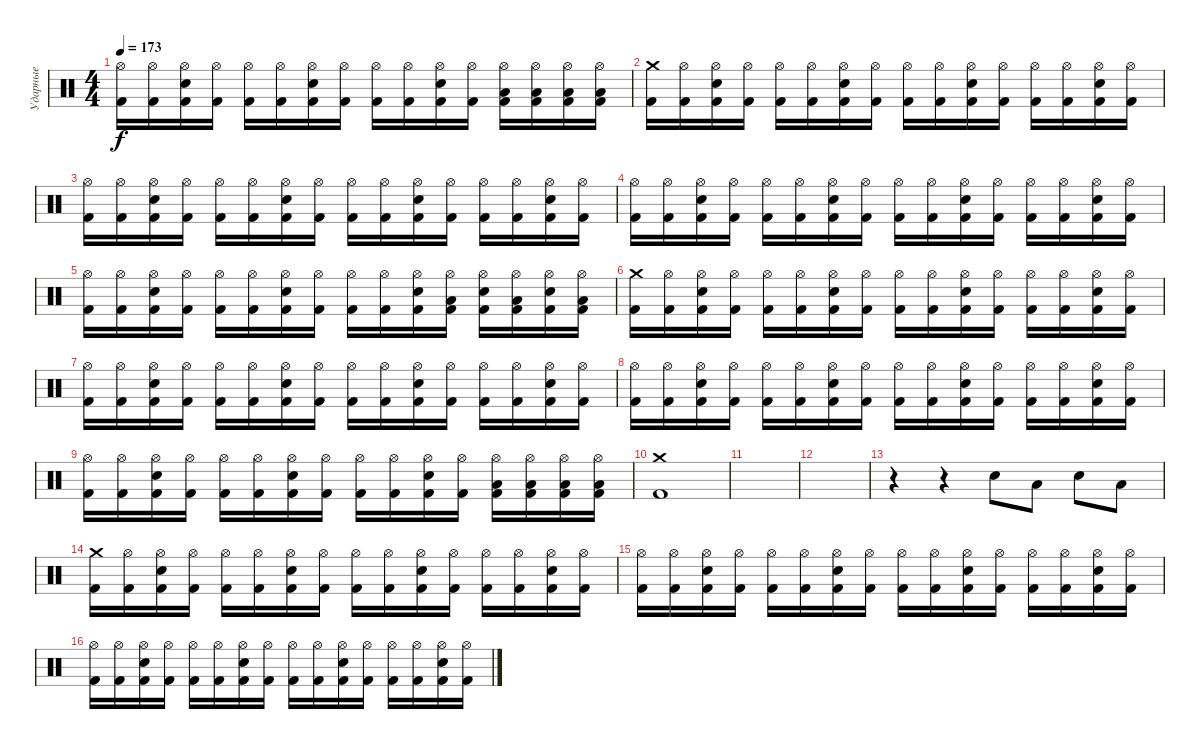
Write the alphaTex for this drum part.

\track ("Ударные" "Ударные") {instrument percussion}
\staff {score}
\articulation defaults
\ts (4 4)
\tempo 173
\clef neutral
\ks c
("Hi-Hat (open)" "Kick (hit) 2").16{dy f} ("Hi-Hat (open)" "Kick (hit) 2").16 ("Hi-Hat (open)" "Electric Snare (hit)" "Kick (hit) 2").16 ("Hi-Hat (open)" "Kick (hit) 2").16 ("Hi-Hat (open)" "Kick (hit) 2").16 ("Hi-Hat (open)" "Kick (hit) 2").16 ("Hi-Hat (open)" "Electric Snare (hit)" "Kick (hit) 2").16 ("Hi-Hat (open)" "Kick (hit) 2").16 ("Hi-Hat (open)" "Kick (hit) 2").16 ("Hi-Hat (open)" "Kick (hit) 2").16 ("Hi-Hat (open)" "Electric Snare (hit)" "Kick (hit) 2").16 ("Hi-Hat (open)" "Kick (hit) 2").16 ("Hi-Hat (open)" "Low Tom (hit)" "Kick (hit) 2").16 ("Hi-Hat (open)" "Low Tom (hit)" "Kick (hit) 2").16 ("Hi-Hat (open)" "Low Tom (hit)" "Kick (hit) 2").16 ("Hi-Hat (open)" "Low Tom (hit)" "Kick (hit) 2").16 |
("Crash medium (hit)" "Kick (hit) 2").16 ("Hi-Hat (open)" "Kick (hit) 2").16 ("Hi-Hat (open)" "Electric Snare (hit)" "Kick (hit) 2").16 ("Hi-Hat (open)" "Kick (hit) 2").16 ("Hi-Hat (open)" "Kick (hit) 2").16 ("Hi-Hat (open)" "Kick (hit) 2").16 ("Hi-Hat (open)" "Electric Snare (hit)" "Kick (hit) 2").16 ("Hi-Hat (open)" "Kick (hit) 2").16 ("Hi-Hat (open)" "Kick (hit) 2").16 ("Hi-Hat (open)" "Kick (hit) 2").16 ("Hi-Hat (open)" "Electric Snare (hit)" "Kick (hit) 2").16 ("Hi-Hat (open)" "Kick (hit) 2").16 ("Hi-Hat (open)" "Kick (hit) 2").16 ("Hi-Hat (open)" "Kick (hit) 2").16 ("Hi-Hat (open)" "Electric Snare (hit)" "Kick (hit) 2").16 ("Hi-Hat (open)" "Kick (hit) 2").16 |
("Hi-Hat (open)" "Kick (hit) 2").16 ("Hi-Hat (open)" "Kick (hit) 2").16 ("Hi-Hat (open)" "Electric Snare (hit)" "Kick (hit) 2").16 ("Hi-Hat (open)" "Kick (hit) 2").16 ("Hi-Hat (open)" "Kick (hit) 2").16 ("Hi-Hat (open)" "Kick (hit) 2").16 ("Hi-Hat (open)" "Electric Snare (hit)" "Kick (hit) 2").16 ("Hi-Hat (open)" "Kick (hit) 2").16 ("Hi-Hat (open)" "Kick (hit) 2").16 ("Hi-Hat (open)" "Kick (hit) 2").16 ("Hi-Hat (open)" "Electric Snare (hit)" "Kick (hit) 2").16 ("Hi-Hat (open)" "Kick (hit) 2").16 ("Hi-Hat (open)" "Kick (hit) 2").16 ("Hi-Hat (open)" "Kick (hit) 2").16 ("Hi-Hat (open)" "Electric Snare (hit)" "Kick (hit) 2").16 ("Hi-Hat (open)" "Kick (hit) 2").16 |
("Hi-Hat (open)" "Kick (hit) 2").16 ("Hi-Hat (open)" "Kick (hit) 2").16 ("Hi-Hat (open)" "Electric Snare (hit)" "Kick (hit) 2").16 ("Hi-Hat (open)" "Kick (hit) 2").16 ("Hi-Hat (open)" "Kick (hit) 2").16 ("Hi-Hat (open)" "Kick (hit) 2").16 ("Hi-Hat (open)" "Electric Snare (hit)" "Kick (hit) 2").16 ("Hi-Hat (open)" "Kick (hit) 2").16 ("Hi-Hat (open)" "Kick (hit) 2").16 ("Hi-Hat (open)" "Kick (hit) 2").16 ("Hi-Hat (open)" "Electric Snare (hit)" "Kick (hit) 2").16 ("Hi-Hat (open)" "Kick (hit) 2").16 ("Hi-Hat (open)" "Kick (hit) 2").16 ("Hi-Hat (open)" "Kick (hit) 2").16 ("Hi-Hat (open)" "Electric Snare (hit)" "Kick (hit) 2").16 ("Hi-Hat (open)" "Kick (hit) 2").16 |
("Hi-Hat (open)" "Kick (hit) 2").16 ("Hi-Hat (open)" "Kick (hit) 2").16 ("Hi-Hat (open)" "Electric Snare (hit)" "Kick (hit) 2").16 ("Hi-Hat (open)" "Kick (hit) 2").16 ("Hi-Hat (open)" "Kick (hit) 2").16 ("Hi-Hat (open)" "Kick (hit) 2").16 ("Hi-Hat (open)" "Electric Snare (hit)" "Kick (hit) 2").16 ("Hi-Hat (open)" "Kick (hit) 2").16 ("Hi-Hat (open)" "Kick (hit) 2").16 ("Hi-Hat (open)" "Kick (hit) 2").16 ("Hi-Hat (open)" "Electric Snare (hit)" "Kick (hit) 2").16 ("Hi-Hat (open)" "Low Tom (hit)" "Kick (hit) 2").16 ("Hi-Hat (open)" "Electric Snare (hit)" "Kick (hit) 2").16 ("Hi-Hat (open)" "Low Tom (hit)" "Kick (hit) 2").16 ("Hi-Hat (open)" "Electric Snare (hit)" "Kick (hit) 2").16 ("Hi-Hat (open)" "Low Tom (hit)" "Kick (hit) 2").16 |
("Crash medium (hit)" "Kick (hit) 2").16 ("Hi-Hat (open)" "Kick (hit) 2").16 ("Hi-Hat (open)" "Electric Snare (hit)" "Kick (hit) 2").16 ("Hi-Hat (open)" "Kick (hit) 2").16 ("Hi-Hat (open)" "Kick (hit) 2").16 ("Hi-Hat (open)" "Kick (hit) 2").16 ("Hi-Hat (open)" "Electric Snare (hit)" "Kick (hit) 2").16 ("Hi-Hat (open)" "Kick (hit) 2").16 ("Hi-Hat (open)" "Kick (hit) 2").16 ("Hi-Hat (open)" "Kick (hit) 2").16 ("Hi-Hat (open)" "Electric Snare (hit)" "Kick (hit) 2").16 ("Hi-Hat (open)" "Kick (hit) 2").16 ("Hi-Hat (open)" "Kick (hit) 2").16 ("Hi-Hat (open)" "Kick (hit) 2").16 ("Hi-Hat (open)" "Electric Snare (hit)" "Kick (hit) 2").16 ("Hi-Hat (open)" "Kick (hit) 2").16 |
("Hi-Hat (open)" "Kick (hit) 2").16 ("Hi-Hat (open)" "Kick (hit) 2").16 ("Hi-Hat (open)" "Electric Snare (hit)" "Kick (hit) 2").16 ("Hi-Hat (open)" "Kick (hit) 2").16 ("Hi-Hat (open)" "Kick (hit) 2").16 ("Hi-Hat (open)" "Kick (hit) 2").16 ("Hi-Hat (open)" "Electric Snare (hit)" "Kick (hit) 2").16 ("Hi-Hat (open)" "Kick (hit) 2").16 ("Hi-Hat (open)" "Kick (hit) 2").16 ("Hi-Hat (open)" "Kick (hit) 2").16 ("Hi-Hat (open)" "Electric Snare (hit)" "Kick (hit) 2").16 ("Hi-Hat (open)" "Kick (hit) 2").16 ("Hi-Hat (open)" "Kick (hit) 2").16 ("Hi-Hat (open)" "Kick (hit) 2").16 ("Hi-Hat (open)" "Electric Snare (hit)" "Kick (hit) 2").16 ("Hi-Hat (open)" "Kick (hit) 2").16 |
("Hi-Hat (open)" "Kick (hit) 2").16 ("Hi-Hat (open)" "Kick (hit) 2").16 ("Hi-Hat (open)" "Electric Snare (hit)" "Kick (hit) 2").16 ("Hi-Hat (open)" "Kick (hit) 2").16 ("Hi-Hat (open)" "Kick (hit) 2").16 ("Hi-Hat (open)" "Kick (hit) 2").16 ("Hi-Hat (open)" "Electric Snare (hit)" "Kick (hit) 2").16 ("Hi-Hat (open)" "Kick (hit) 2").16 ("Hi-Hat (open)" "Kick (hit) 2").16 ("Hi-Hat (open)" "Kick (hit) 2").16 ("Hi-Hat (open)" "Electric Snare (hit)" "Kick (hit) 2").16 ("Hi-Hat (open)" "Kick (hit) 2").16 ("Hi-Hat (open)" "Kick (hit) 2").16 ("Hi-Hat (open)" "Kick (hit) 2").16 ("Hi-Hat (open)" "Electric Snare (hit)" "Kick (hit) 2").16 ("Hi-Hat (open)" "Kick (hit) 2").16 |
("Hi-Hat (open)" "Kick (hit) 2").16 ("Hi-Hat (open)" "Kick (hit) 2").16 ("Hi-Hat (open)" "Electric Snare (hit)" "Kick (hit) 2").16 ("Hi-Hat (open)" "Kick (hit) 2").16 ("Hi-Hat (open)" "Kick (hit) 2").16 ("Hi-Hat (open)" "Kick (hit) 2").16 ("Hi-Hat (open)" "Electric Snare (hit)" "Kick (hit) 2").16 ("Hi-Hat (open)" "Kick (hit) 2").16 ("Hi-Hat (open)" "Kick (hit) 2").16 ("Hi-Hat (open)" "Kick (hit) 2").16 ("Hi-Hat (open)" "Electric Snare (hit)" "Kick (hit) 2").16 ("Hi-Hat (open)" "Kick (hit) 2").16 ("Hi-Hat (open)" "Low Tom (hit)" "Kick (hit) 2").16 ("Hi-Hat (open)" "Low Tom (hit)" "Kick (hit) 2").16 ("Hi-Hat (open)" "Low Tom (hit)" "Kick (hit) 2").16 ("Hi-Hat (open)" "Low Tom (hit)" "Kick (hit) 2").16 |
("Crash medium (hit)" "Kick (hit) 2").1 |
|
|
r.4 r.4 "Electric Snare (hit)".8 "Low Tom (hit)".8 "Electric Snare (hit)".8 "Low Tom (hit)".8 |
("Crash medium (hit)" "Kick (hit) 2").16 ("Hi-Hat (open)" "Kick (hit) 2").16 ("Hi-Hat (open)" "Electric Snare (hit)" "Kick (hit) 2").16 ("Hi-Hat (open)" "Kick (hit) 2").16 ("Hi-Hat (open)" "Kick (hit) 2").16 ("Hi-Hat (open)" "Kick (hit) 2").16 ("Hi-Hat (open)" "Electric Snare (hit)" "Kick (hit) 2").16 ("Hi-Hat (open)" "Kick (hit) 2").16 ("Hi-Hat (open)" "Kick (hit) 2").16 ("Hi-Hat (open)" "Kick (hit) 2").16 ("Hi-Hat (open)" "Electric Snare (hit)" "Kick (hit) 2").16 ("Hi-Hat (open)" "Kick (hit) 2").16 ("Hi-Hat (open)" "Kick (hit) 2").16 ("Hi-Hat (open)" "Kick (hit) 2").16 ("Hi-Hat (open)" "Electric Snare (hit)" "Kick (hit) 2").16 ("Hi-Hat (open)" "Kick (hit) 2").16 |
("Hi-Hat (open)" "Kick (hit) 2").16 ("Hi-Hat (open)" "Kick (hit) 2").16 ("Hi-Hat (open)" "Electric Snare (hit)" "Kick (hit) 2").16 ("Hi-Hat (open)" "Kick (hit) 2").16 ("Hi-Hat (open)" "Kick (hit) 2").16 ("Hi-Hat (open)" "Kick (hit) 2").16 ("Hi-Hat (open)" "Electric Snare (hit)" "Kick (hit) 2").16 ("Hi-Hat (open)" "Kick (hit) 2").16 ("Hi-Hat (open)" "Kick (hit) 2").16 ("Hi-Hat (open)" "Kick (hit) 2").16 ("Hi-Hat (open)" "Electric Snare (hit)" "Kick (hit) 2").16 ("Hi-Hat (open)" "Kick (hit) 2").16 ("Hi-Hat (open)" "Kick (hit) 2").16 ("Hi-Hat (open)" "Kick (hit) 2").16 ("Hi-Hat (open)" "Electric Snare (hit)" "Kick (hit) 2").16 ("Hi-Hat (open)" "Kick (hit) 2").16 |
("Hi-Hat (open)" "Kick (hit) 2").16 ("Hi-Hat (open)" "Kick (hit) 2").16 ("Hi-Hat (open)" "Electric Snare (hit)" "Kick (hit) 2").16 ("Hi-Hat (open)" "Kick (hit) 2").16 ("Hi-Hat (open)" "Kick (hit) 2").16 ("Hi-Hat (open)" "Kick (hit) 2").16 ("Hi-Hat (open)" "Electric Snare (hit)" "Kick (hit) 2").16 ("Hi-Hat (open)" "Kick (hit) 2").16 ("Hi-Hat (open)" "Kick (hit) 2").16 ("Hi-Hat (open)" "Kick (hit) 2").16 ("Hi-Hat (open)" "Electric Snare (hit)" "Kick (hit) 2").16 ("Hi-Hat (open)" "Kick (hit) 2").16 ("Hi-Hat (open)" "Kick (hit) 2").16 ("Hi-Hat (open)" "Kick (hit) 2").16 ("Hi-Hat (open)" "Electric Snare (hit)" "Kick (hit) 2").16 ("Hi-Hat (open)" "Kick (hit) 2").16
